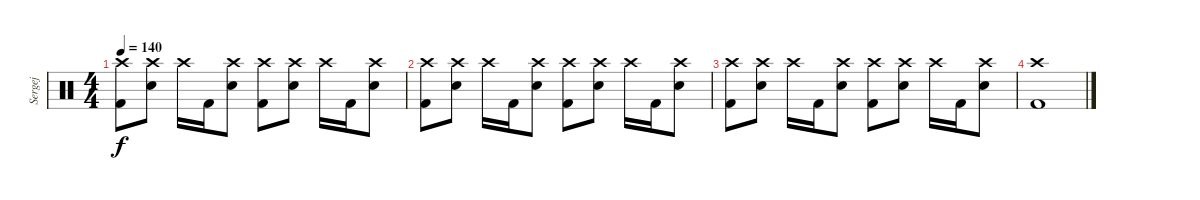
\track ("Sergej" "Sergej") {instrument percussion}
\staff {score}
\articulation defaults
\ts (4 4)
\tempo 140
\clef neutral
\ks c
("Crash high (hit)" "Kick (hit) 2").8{dy f} ("Crash high (hit)" "Snare (hit) 2").8 "Crash high (hit)".16 "Kick (hit) 2".16 ("Crash high (hit)" "Snare (hit) 2").8 ("Crash high (hit)" "Kick (hit) 2").8 ("Crash high (hit)" "Snare (hit) 2").8 "Crash high (hit)".16 "Kick (hit) 2".16 ("Crash high (hit)" "Snare (hit) 2").8 |
("Crash high (hit)" "Kick (hit) 2").8 ("Crash high (hit)" "Snare (hit) 2").8 "Crash high (hit)".16 "Kick (hit) 2".16 ("Crash high (hit)" "Snare (hit) 2").8 ("Crash high (hit)" "Kick (hit) 2").8 ("Crash high (hit)" "Snare (hit) 2").8 "Crash high (hit)".16 "Kick (hit) 2".16 ("Crash high (hit)" "Snare (hit) 2").8 |
("Crash high (hit)" "Kick (hit) 2").8 ("Crash high (hit)" "Snare (hit) 2").8 "Crash high (hit)".16 "Kick (hit) 2".16 ("Crash high (hit)" "Snare (hit) 2").8 ("Crash high (hit)" "Kick (hit) 2").8 ("Crash high (hit)" "Snare (hit) 2").8 "Crash high (hit)".16 "Kick (hit) 2".16 ("Crash high (hit)" "Snare (hit) 2").8 |
("Crash high (hit)" "Kick (hit) 2").1
